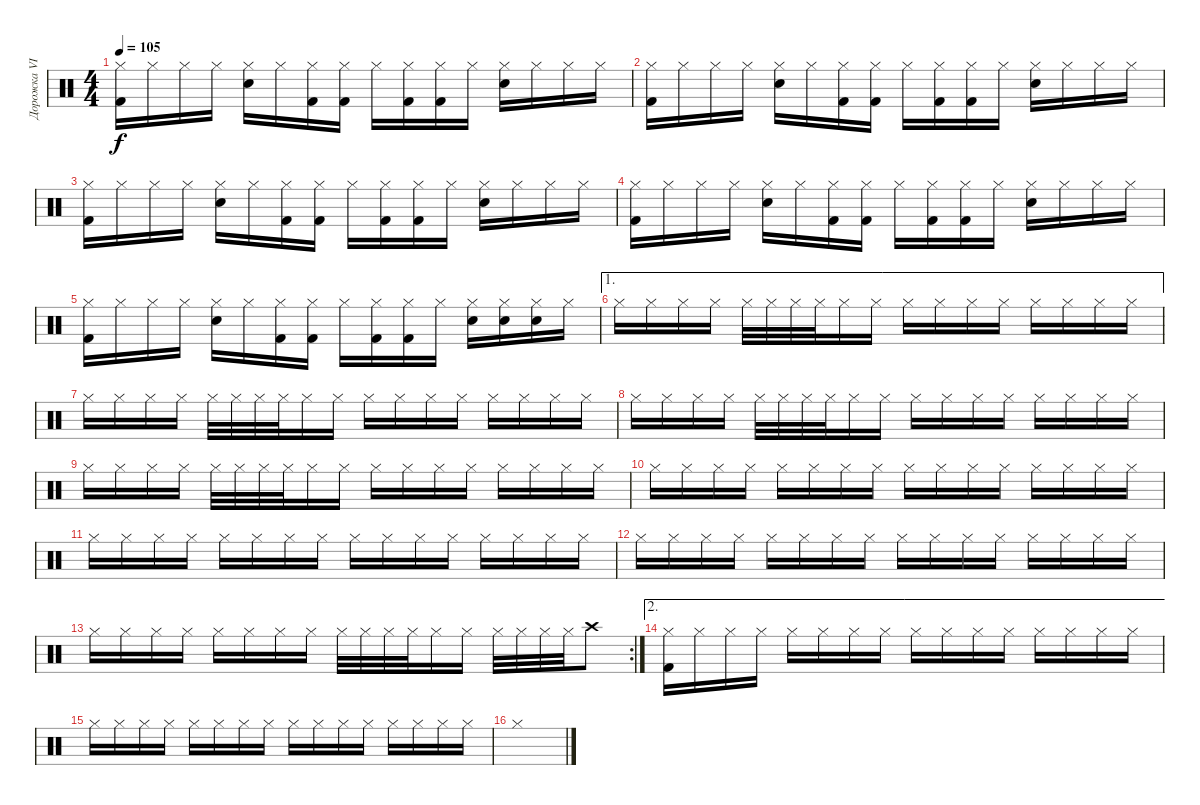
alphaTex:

\track ("Дорожка VI" "Дорожка VI") {instrument percussion}
\staff {score}
\articulation defaults
\ts (4 4)
\tempo 105
\clef neutral
\ks c
("Kick (hit) 2" "Hi-Hat (closed)").16{dy f} "Hi-Hat (closed)".16 "Hi-Hat (closed)".16 "Hi-Hat (closed)".16 ("Electric Snare (hit)" "Hi-Hat (closed)").16 "Hi-Hat (closed)".16 ("Kick (hit) 2" "Hi-Hat (closed)").16 ("Kick (hit) 2" "Hi-Hat (closed)").16 "Hi-Hat (closed)".16 ("Kick (hit) 2" "Hi-Hat (closed)").16 ("Kick (hit) 2" "Hi-Hat (closed)").16 "Hi-Hat (closed)".16 ("Electric Snare (hit)" "Hi-Hat (closed)").16 "Hi-Hat (closed)".16 "Hi-Hat (closed)".16 "Hi-Hat (closed)".16 |
("Kick (hit) 2" "Hi-Hat (closed)").16 "Hi-Hat (closed)".16 "Hi-Hat (closed)".16 "Hi-Hat (closed)".16 ("Electric Snare (hit)" "Hi-Hat (closed)").16 "Hi-Hat (closed)".16 ("Kick (hit) 2" "Hi-Hat (closed)").16 ("Kick (hit) 2" "Hi-Hat (closed)").16 "Hi-Hat (closed)".16 ("Kick (hit) 2" "Hi-Hat (closed)").16 ("Kick (hit) 2" "Hi-Hat (closed)").16 "Hi-Hat (closed)".16 ("Electric Snare (hit)" "Hi-Hat (closed)").16 "Hi-Hat (closed)".16 "Hi-Hat (closed)".16 "Hi-Hat (closed)".16 |
("Kick (hit) 2" "Hi-Hat (closed)").16 "Hi-Hat (closed)".16 "Hi-Hat (closed)".16 "Hi-Hat (closed)".16 ("Electric Snare (hit)" "Hi-Hat (closed)").16 "Hi-Hat (closed)".16 ("Kick (hit) 2" "Hi-Hat (closed)").16 ("Kick (hit) 2" "Hi-Hat (closed)").16 "Hi-Hat (closed)".16 ("Kick (hit) 2" "Hi-Hat (closed)").16 ("Kick (hit) 2" "Hi-Hat (closed)").16 "Hi-Hat (closed)".16 ("Electric Snare (hit)" "Hi-Hat (closed)").16 "Hi-Hat (closed)".16 "Hi-Hat (closed)".16 "Hi-Hat (closed)".16 |
("Kick (hit) 2" "Hi-Hat (closed)").16 "Hi-Hat (closed)".16 "Hi-Hat (closed)".16 "Hi-Hat (closed)".16 ("Electric Snare (hit)" "Hi-Hat (closed)").16 "Hi-Hat (closed)".16 ("Kick (hit) 2" "Hi-Hat (closed)").16 ("Kick (hit) 2" "Hi-Hat (closed)").16 "Hi-Hat (closed)".16 ("Kick (hit) 2" "Hi-Hat (closed)").16 ("Kick (hit) 2" "Hi-Hat (closed)").16 "Hi-Hat (closed)".16 ("Electric Snare (hit)" "Hi-Hat (closed)").16 "Hi-Hat (closed)".16 "Hi-Hat (closed)".16 "Hi-Hat (closed)".16 |
("Kick (hit) 2" "Hi-Hat (closed)").16 "Hi-Hat (closed)".16 "Hi-Hat (closed)".16 "Hi-Hat (closed)".16 ("Electric Snare (hit)" "Hi-Hat (closed)").16 "Hi-Hat (closed)".16 ("Kick (hit) 2" "Hi-Hat (closed)").16 ("Kick (hit) 2" "Hi-Hat (closed)").16 "Hi-Hat (closed)".16 ("Kick (hit) 2" "Hi-Hat (closed)").16 ("Kick (hit) 2" "Hi-Hat (closed)").16 "Hi-Hat (closed)".16 ("Electric Snare (hit)" "Hi-Hat (closed)").16 ("Electric Snare (hit)" "Hi-Hat (closed)").16 ("Electric Snare (hit)" "Hi-Hat (closed)").16 "Hi-Hat (closed)".16 |
\ae 1 "Hi-Hat (closed)".16 "Hi-Hat (closed)".16 "Hi-Hat (closed)".16 "Hi-Hat (closed)".16 "Hi-Hat (closed)".32 "Hi-Hat (closed)".32 "Hi-Hat (closed)".32 "Hi-Hat (closed)".32 "Hi-Hat (closed)".16 "Hi-Hat (closed)".16 "Hi-Hat (closed)".16 "Hi-Hat (closed)".16 "Hi-Hat (closed)".16 "Hi-Hat (closed)".16 "Hi-Hat (closed)".16 "Hi-Hat (closed)".16 "Hi-Hat (closed)".16 "Hi-Hat (closed)".16
|
"Hi-Hat (closed)".16 "Hi-Hat (closed)".16 "Hi-Hat (closed)".16 "Hi-Hat (closed)".16 "Hi-Hat (closed)".32 "Hi-Hat (closed)".32 "Hi-Hat (closed)".32 "Hi-Hat (closed)".32 "Hi-Hat (closed)".16 "Hi-Hat (closed)".16 "Hi-Hat (closed)".16 "Hi-Hat (closed)".16 "Hi-Hat (closed)".16 "Hi-Hat (closed)".16 "Hi-Hat (closed)".16 "Hi-Hat (closed)".16 "Hi-Hat (closed)".16 "Hi-Hat (closed)".16 |
"Hi-Hat (closed)".16 "Hi-Hat (closed)".16 "Hi-Hat (closed)".16 "Hi-Hat (closed)".16 "Hi-Hat (closed)".32 "Hi-Hat (closed)".32 "Hi-Hat (closed)".32 "Hi-Hat (closed)".32 "Hi-Hat (closed)".16 "Hi-Hat (closed)".16 "Hi-Hat (closed)".16 "Hi-Hat (closed)".16 "Hi-Hat (closed)".16 "Hi-Hat (closed)".16 "Hi-Hat (closed)".16 "Hi-Hat (closed)".16 "Hi-Hat (closed)".16 "Hi-Hat (closed)".16 |
"Hi-Hat (closed)".16 "Hi-Hat (closed)".16 "Hi-Hat (closed)".16 "Hi-Hat (closed)".16 "Hi-Hat (closed)".32 "Hi-Hat (closed)".32 "Hi-Hat (closed)".32 "Hi-Hat (closed)".32 "Hi-Hat (closed)".16 "Hi-Hat (closed)".16 "Hi-Hat (closed)".16 "Hi-Hat (closed)".16 "Hi-Hat (closed)".16 "Hi-Hat (closed)".16 "Hi-Hat (closed)".16 "Hi-Hat (closed)".16 "Hi-Hat (closed)".16 "Hi-Hat (closed)".16 |
"Hi-Hat (closed)".16 "Hi-Hat (closed)".16 "Hi-Hat (closed)".16 "Hi-Hat (closed)".16 "Hi-Hat (closed)".16 "Hi-Hat (closed)".16 "Hi-Hat (closed)".16 "Hi-Hat (closed)".16 "Hi-Hat (closed)".16 "Hi-Hat (closed)".16 "Hi-Hat (closed)".16 "Hi-Hat (closed)".16 "Hi-Hat (closed)".16 "Hi-Hat (closed)".16 "Hi-Hat (closed)".16 "Hi-Hat (closed)".16 |
"Hi-Hat (closed)".16 "Hi-Hat (closed)".16 "Hi-Hat (closed)".16 "Hi-Hat (closed)".16 "Hi-Hat (closed)".16 "Hi-Hat (closed)".16 "Hi-Hat (closed)".16 "Hi-Hat (closed)".16 "Hi-Hat (closed)".16 "Hi-Hat (closed)".16 "Hi-Hat (closed)".16 "Hi-Hat (closed)".16 "Hi-Hat (closed)".16 "Hi-Hat (closed)".16 "Hi-Hat (closed)".16 "Hi-Hat (closed)".16 |
"Hi-Hat (closed)".16 "Hi-Hat (closed)".16 "Hi-Hat (closed)".16 "Hi-Hat (closed)".16 "Hi-Hat (closed)".16 "Hi-Hat (closed)".16 "Hi-Hat (closed)".16 "Hi-Hat (closed)".16 "Hi-Hat (closed)".16 "Hi-Hat (closed)".16 "Hi-Hat (closed)".16 "Hi-Hat (closed)".16 "Hi-Hat (closed)".16 "Hi-Hat (closed)".16 "Hi-Hat (closed)".16 "Hi-Hat (closed)".16 |
\rc 2 "Hi-Hat (closed)".16 "Hi-Hat (closed)".16 "Hi-Hat (closed)".16 "Hi-Hat (closed)".16 "Hi-Hat (closed)".16 "Hi-Hat (closed)".16 "Hi-Hat (closed)".16 "Hi-Hat (closed)".16 "Hi-Hat (closed)".32 "Hi-Hat (closed)".32 "Hi-Hat (closed)".32 "Hi-Hat (closed)".32 "Hi-Hat (closed)".16 "Hi-Hat (closed)".16 "Hi-Hat (closed)".32 "Hi-Hat (closed)".32 "Hi-Hat (closed)".32 "Hi-Hat (closed)".32 "Crash high (hit)".8
|
\ae 2
("Kick (hit) 2" "Hi-Hat (closed)").16 "Hi-Hat (closed)".16 "Hi-Hat (closed)".16 "Hi-Hat (closed)".16 "Hi-Hat (closed)".16 "Hi-Hat (closed)".16 "Hi-Hat (closed)".16 "Hi-Hat (closed)".16 "Hi-Hat (closed)".16 "Hi-Hat (closed)".16 "Hi-Hat (closed)".16 "Hi-Hat (closed)".16 "Hi-Hat (closed)".16 "Hi-Hat (closed)".16 "Hi-Hat (closed)".16 "Hi-Hat (closed)".16 |
"Hi-Hat (closed)".16 "Hi-Hat (closed)".16 "Hi-Hat (closed)".16 "Hi-Hat (closed)".16 "Hi-Hat (closed)".16 "Hi-Hat (closed)".16 "Hi-Hat (closed)".16 "Hi-Hat (closed)".16 "Hi-Hat (closed)".16 "Hi-Hat (closed)".16 "Hi-Hat (closed)".16 "Hi-Hat (closed)".16 "Hi-Hat (closed)".16 "Hi-Hat (closed)".16 "Hi-Hat (closed)".16 "Hi-Hat (closed)".16 |
"Hi-Hat (closed)".1
